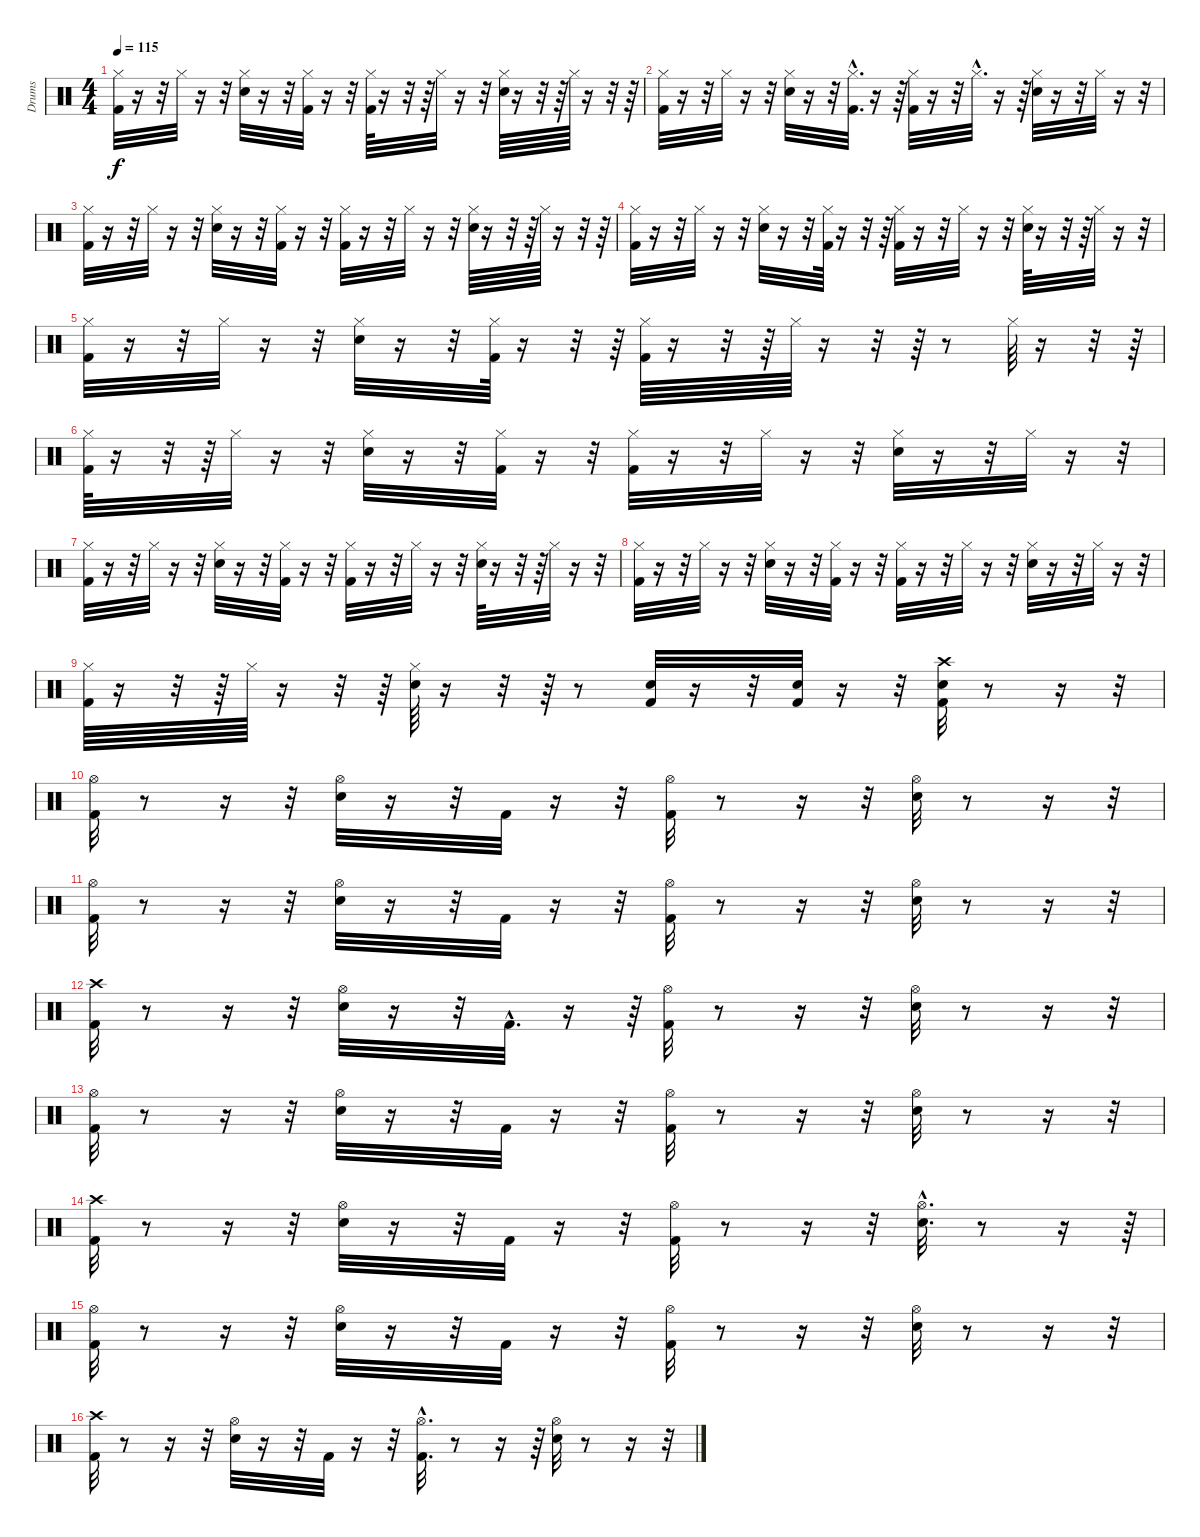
\track ("Drums               " "Drums     ") {instrument percussion}
\staff {score}
\articulation defaults
\ts (4 4)
\tempo 115
\clef neutral
\ks c
("Hi-Hat (closed)" "Kick (hit) 2").32{dy f} r.16 r.32 "Hi-Hat (closed)".32 r.16 r.32 ("Hi-Hat (closed)" "Snare (hit) 2").32 r.16 r.32 ("Hi-Hat (closed)" "Kick (hit) 2").32 r.16 r.32 ("Hi-Hat (closed)" "Kick (hit) 2").64 r.16 r.32 r.64 "Hi-Hat (closed)".32 r.16 r.32 ("Hi-Hat (closed)" "Snare (hit) 2").64 r.16 r.32 r.64 "Hi-Hat (closed)".64 r.16 r.32 r.64 |
("Hi-Hat (closed)" "Kick (hit) 2").32 r.16 r.32 "Hi-Hat (closed)".32 r.16 r.32 ("Hi-Hat (closed)" "Snare (hit) 2").32 r.16 r.32 ("Hi-Hat (closed)"{hac} "Kick (hit) 2"{hac}).32{d} r.16 r.64 ("Hi-Hat (closed)" "Kick (hit) 2").32 r.16 r.32 "Hi-Hat (closed)"{hac}.32{d} r.16 r.64 ("Hi-Hat (closed)" "Snare (hit) 2").32 r.16 r.32 "Hi-Hat (closed)".32 r.16 r.32 |
("Hi-Hat (closed)" "Kick (hit) 2").32 r.16 r.32 "Hi-Hat (closed)".32 r.16 r.32 ("Hi-Hat (closed)" "Snare (hit) 2").32 r.16 r.32 ("Hi-Hat (closed)" "Kick (hit) 2").32 r.16 r.32 ("Hi-Hat (closed)" "Kick (hit) 2").32 r.16 r.32 "Hi-Hat (closed)".32 r.16 r.32 ("Hi-Hat (closed)" "Snare (hit) 2").64 r.16 r.32 r.64 "Hi-Hat (closed)".64 r.16 r.32 r.64 |
("Hi-Hat (closed)" "Kick (hit) 2").32 r.16 r.32 "Hi-Hat (closed)".32 r.16 r.32 ("Hi-Hat (closed)" "Snare (hit) 2").32 r.16 r.32 ("Hi-Hat (closed)" "Kick (hit) 2").64 r.16 r.32 r.64 ("Hi-Hat (closed)" "Kick (hit) 2").32 r.16 r.32 "Hi-Hat (closed)".32 r.16 r.32 ("Hi-Hat (closed)" "Snare (hit) 2").64 r.16 r.32 r.64 "Hi-Hat (closed)".32 r.16 r.32 |
("Hi-Hat (closed)" "Kick (hit) 2").32 r.16 r.32 "Hi-Hat (closed)".32 r.16 r.32 ("Hi-Hat (closed)" "Snare (hit) 2").32 r.16 r.32 ("Hi-Hat (closed)" "Kick (hit) 2").64 r.16 r.32 r.64 ("Hi-Hat (closed)" "Kick (hit) 2").64 r.16 r.32 r.64 "Hi-Hat (closed)".64 r.16 r.32 r.64 r.8 "Hi-Hat (closed)".64 r.16 r.32 r.64 |
("Hi-Hat (closed)" "Kick (hit) 2").64 r.16 r.32 r.64 "Hi-Hat (closed)".32 r.16 r.32 ("Hi-Hat (closed)" "Snare (hit) 2").32 r.16 r.32 ("Hi-Hat (closed)" "Kick (hit) 2").32 r.16 r.32 ("Hi-Hat (closed)" "Kick (hit) 2").32 r.16 r.32 "Hi-Hat (closed)".32 r.16 r.32 ("Hi-Hat (closed)" "Snare (hit) 2").32 r.16 r.32 "Hi-Hat (closed)".32 r.16 r.32 |
("Hi-Hat (closed)" "Kick (hit) 2").32 r.16 r.32 "Hi-Hat (closed)".32 r.16 r.32 ("Hi-Hat (closed)" "Snare (hit) 2").32 r.16 r.32 ("Hi-Hat (closed)" "Kick (hit) 2").32 r.16 r.32 ("Hi-Hat (closed)" "Kick (hit) 2").32 r.16 r.32 "Hi-Hat (closed)".32 r.16 r.32 ("Hi-Hat (closed)" "Snare (hit) 2").64 r.16 r.32 r.64 "Hi-Hat (closed)".32 r.16 r.32 |
("Hi-Hat (closed)" "Kick (hit) 2").32 r.16 r.32 "Hi-Hat (closed)".32 r.16 r.32 ("Hi-Hat (closed)" "Snare (hit) 2").32 r.16 r.32 ("Hi-Hat (closed)" "Kick (hit) 2").32 r.16 r.32 ("Hi-Hat (closed)" "Kick (hit) 2").32 r.16 r.32 "Hi-Hat (closed)".32 r.16 r.32 ("Hi-Hat (closed)" "Snare (hit) 2").32 r.16 r.32 "Hi-Hat (closed)".32 r.16 r.32 |
("Hi-Hat (closed)" "Kick (hit) 2").64 r.16 r.32 r.64 "Hi-Hat (closed)".64 r.16 r.32 r.64 ("Hi-Hat (closed)" "Snare (hit) 2").64 r.16 r.32 r.64 r.8 ("Snare (hit) 2" "Kick (hit) 2").32 r.16 r.32 ("Kick (hit) 2" "Snare (hit) 2").32 r.16 r.32 ("Crash high (hit)" "Snare (hit) 2" "Kick (hit) 2").32 r.8 r.16 r.32 |
("Hi-Hat (open)" "Kick (hit) 2").32 r.8 r.16 r.32 ("Hi-Hat (open)" "Snare (hit) 2").32 r.16 r.32 "Kick (hit) 2".32 r.16 r.32 ("Hi-Hat (open)" "Kick (hit) 2").32 r.8 r.16 r.32 ("Hi-Hat (open)" "Snare (hit) 2").32 r.8 r.16 r.32 |
("Hi-Hat (open)" "Kick (hit) 2").32 r.8 r.16 r.32 ("Hi-Hat (open)" "Snare (hit) 2").32 r.16 r.32 "Kick (hit) 2".32 r.16 r.32 ("Hi-Hat (open)" "Kick (hit) 2").32 r.8 r.16 r.32 ("Hi-Hat (open)" "Snare (hit) 2").32 r.8 r.16 r.32 |
("Crash high (hit)" "Kick (hit) 2").32 r.8 r.16 r.32 ("Hi-Hat (open)" "Snare (hit) 2").32 r.16 r.32 "Kick (hit) 2"{hac}.32{d} r.16 r.64 ("Hi-Hat (open)" "Kick (hit) 2").32 r.8 r.16 r.32 ("Hi-Hat (open)" "Snare (hit) 2").32 r.8 r.16 r.32 |
("Hi-Hat (open)" "Kick (hit) 2").32 r.8 r.16 r.32 ("Hi-Hat (open)" "Snare (hit) 2").32 r.16 r.32 "Kick (hit) 2".32 r.16 r.32 ("Hi-Hat (open)" "Kick (hit) 2").32 r.8 r.16 r.32 ("Hi-Hat (open)" "Snare (hit) 2").32 r.8 r.16 r.32 |
("Crash high (hit)" "Kick (hit) 2").32 r.8 r.16 r.32 ("Hi-Hat (open)" "Snare (hit) 2").32 r.16 r.32 "Kick (hit) 2".32 r.16 r.32 ("Hi-Hat (open)" "Kick (hit) 2").32 r.8 r.16 r.32 ("Hi-Hat (open)"{hac} "Snare (hit) 2"{hac}).32{d} r.8 r.16 r.64 |
("Hi-Hat (open)" "Kick (hit) 2").32 r.8 r.16 r.32 ("Hi-Hat (open)" "Snare (hit) 2").32 r.16 r.32 "Kick (hit) 2".32 r.16 r.32 ("Hi-Hat (open)" "Kick (hit) 2").32 r.8 r.16 r.32 ("Hi-Hat (open)" "Snare (hit) 2").32 r.8 r.16 r.32 |
("Crash high (hit)" "Kick (hit) 2").32 r.8 r.16 r.32 ("Hi-Hat (open)" "Snare (hit) 2").32 r.16 r.32 "Kick (hit) 2".32 r.16 r.32 ("Hi-Hat (open)"{hac} "Kick (hit) 2"{hac}).32{d} r.8 r.16 r.64 ("Hi-Hat (open)" "Snare (hit) 2").32 r.8 r.16 r.32
